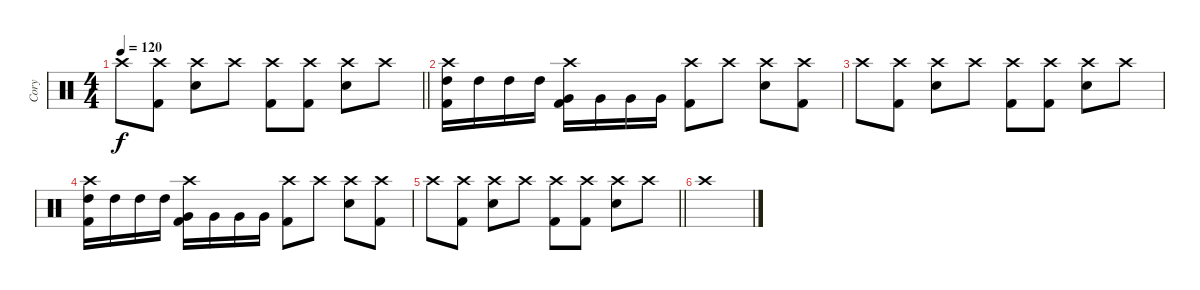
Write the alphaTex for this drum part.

\track ("Cory" "Cory") {instrument percussion}
\staff {score}
\articulation defaults
\ts (4 4)
\tempo 120
\clef neutral
\barLineRight lightlight
\ks c "Crash high (hit)".8{dy f}
("Crash high (hit)" "Kick (hit) 2").8 ("Crash high (hit)" "Snare (hit) 2").8 "Crash high (hit)".8 ("Crash high (hit)" "Kick (hit) 2").8 ("Crash high (hit)" "Kick (hit) 2").8 ("Crash high (hit)" "Snare (hit) 2").8 "Crash high (hit)".8 |
("Crash high (hit)" "High Tom (hit)" "Kick (hit) 2").16 "High Tom (hit)".16 "High Tom (hit)".16 "High Tom (hit)".16 ("Crash high (hit)" "Very Low Tom (hit)" "Kick (hit) 2").16 "Very Low Tom (hit)".16 "Very Low Tom (hit)".16 "Very Low Tom (hit)".16 ("Crash high (hit)" "Kick (hit) 2").8 "Crash high (hit)".8 ("Crash high (hit)" "Snare (hit) 2").8 ("Crash high (hit)" "Kick (hit) 2").8 |
"Crash high (hit)".8 ("Crash high (hit)" "Kick (hit) 2").8 ("Crash high (hit)" "Snare (hit) 2").8 "Crash high (hit)".8 ("Crash high (hit)" "Kick (hit) 2").8 ("Crash high (hit)" "Kick (hit) 2").8 ("Crash high (hit)" "Snare (hit) 2").8 "Crash high (hit)".8 |
("Crash high (hit)" "High Tom (hit)" "Kick (hit) 2").16 "High Tom (hit)".16 "High Tom (hit)".16 "High Tom (hit)".16 ("Crash high (hit)" "Very Low Tom (hit)" "Kick (hit) 2").16 "Very Low Tom (hit)".16 "Very Low Tom (hit)".16 "Very Low Tom (hit)".16 ("Crash high (hit)" "Kick (hit) 2").8 "Crash high (hit)".8 ("Crash high (hit)" "Snare (hit) 2").8 ("Crash high (hit)" "Kick (hit) 2").8 |
\barLineRight lightlight "Crash high (hit)".8
("Crash high (hit)" "Kick (hit) 2").8 ("Crash high (hit)" "Snare (hit) 2").8 "Crash high (hit)".8 ("Crash high (hit)" "Kick (hit) 2").8 ("Crash high (hit)" "Kick (hit) 2").8 ("Crash high (hit)" "Snare (hit) 2").8 "Crash high (hit)".8 |
"Crash high (hit)".1
